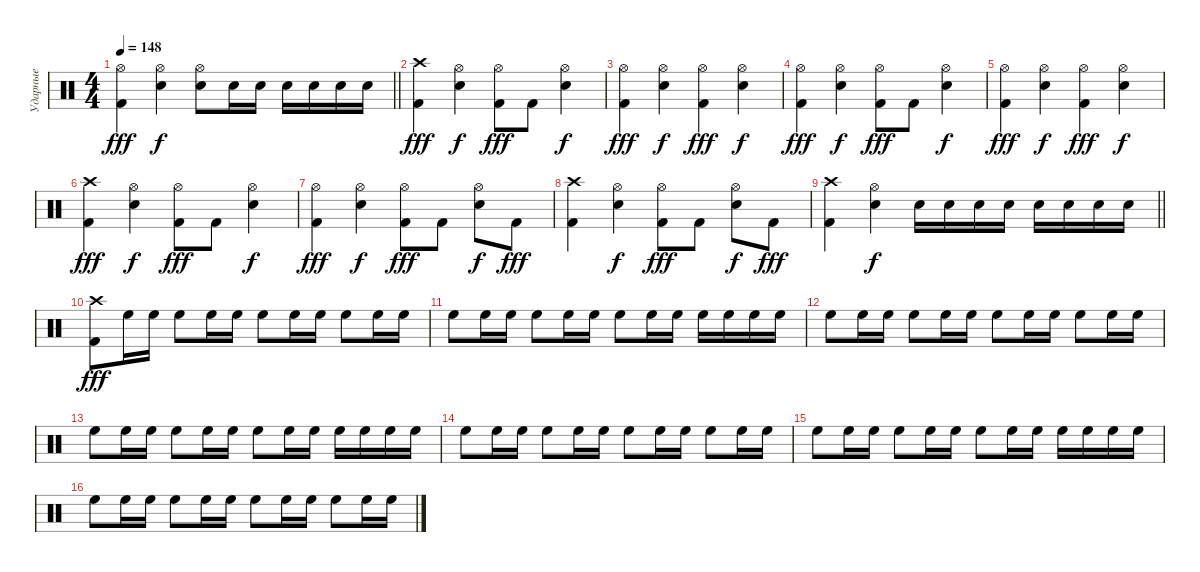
\track ("Ударные" "Ударные") {instrument percussion}
\staff {score}
\articulation defaults
\ts (4 4)
\tempo 148
\clef neutral
\barLineRight lightlight
\ks c
("Kick (hit) 2" "Hi-Hat (open)").4{dy fff} ("Snare (hit) 2" "Hi-Hat (open)").4{dy f} ("Snare (hit) 2" "Hi-Hat (open)").8 "Snare (hit) 2".16 "Snare (hit) 2".16 "Snare (hit) 2".16 "Snare (hit) 2".16 "Snare (hit) 2".16 "Snare (hit) 2".16 |
("Kick (hit) 2" "Crash high (hit)").4{dy fff} ("Snare (hit) 2" "Hi-Hat (open)").4{dy f} ("Kick (hit) 2" "Hi-Hat (open)").8{dy fff} "Kick (hit) 2".8 ("Snare (hit) 2" "Hi-Hat (open)").4{dy f} |
("Kick (hit) 2" "Hi-Hat (open)").4{dy fff} ("Snare (hit) 2" "Hi-Hat (open)").4{dy f} ("Kick (hit) 2" "Hi-Hat (open)").4{dy fff} ("Snare (hit) 2" "Hi-Hat (open)").4{dy f} |
("Kick (hit) 2" "Hi-Hat (open)").4{dy fff} ("Snare (hit) 2" "Hi-Hat (open)").4{dy f} ("Kick (hit) 2" "Hi-Hat (open)").8{dy fff} "Kick (hit) 2".8 ("Snare (hit) 2" "Hi-Hat (open)").4{dy f} |
("Kick (hit) 2" "Hi-Hat (open)").4{dy fff} ("Snare (hit) 2" "Hi-Hat (open)").4{dy f} ("Kick (hit) 2" "Hi-Hat (open)").4{dy fff} ("Snare (hit) 2" "Hi-Hat (open)").4{dy f} |
("Kick (hit) 2" "Crash high (hit)").4{dy fff} ("Snare (hit) 2" "Hi-Hat (open)").4{dy f} ("Kick (hit) 2" "Hi-Hat (open)").8{dy fff} "Kick (hit) 2".8 ("Snare (hit) 2" "Hi-Hat (open)").4{dy f} |
("Kick (hit) 2" "Hi-Hat (open)").4{dy fff} ("Snare (hit) 2" "Hi-Hat (open)").4{dy f} ("Kick (hit) 2" "Hi-Hat (open)").8{dy fff} "Kick (hit) 2".8 ("Snare (hit) 2" "Hi-Hat (open)").8{dy f} "Kick (hit) 2".8{dy fff} |
("Kick (hit) 2" "Crash high (hit)").4 ("Snare (hit) 2" "Hi-Hat (open)").4{dy f} ("Kick (hit) 2" "Hi-Hat (open)").8{dy fff} "Kick (hit) 2".8 ("Snare (hit) 2" "Hi-Hat (open)").8{dy f} "Kick (hit) 2".8{dy fff} |
\barLineRight lightlight
("Kick (hit) 2" "Crash high (hit)").4 ("Snare (hit) 2" "Hi-Hat (open)").4{dy f} "Snare (hit) 2".16 "Snare (hit) 2".16 "Snare (hit) 2".16 "Snare (hit) 2".16 "Snare (hit) 2".16 "Snare (hit) 2".16 "Snare (hit) 2".16 "Snare (hit) 2".16 |
("Kick (hit) 2" "Crash high (hit)").8{dy fff} "High Floor Tom (hit)".16 "High Floor Tom (hit)".16 "High Floor Tom (hit)".8 "High Floor Tom (hit)".16 "High Floor Tom (hit)".16 "High Floor Tom (hit)".8 "High Floor Tom (hit)".16 "High Floor Tom (hit)".16 "High Floor Tom (hit)".8 "High Floor Tom (hit)".16 "High Floor Tom (hit)".16 |
"High Floor Tom (hit)".8 "High Floor Tom (hit)".16 "High Floor Tom (hit)".16 "High Floor Tom (hit)".8 "High Floor Tom (hit)".16 "High Floor Tom (hit)".16 "High Floor Tom (hit)".8 "High Floor Tom (hit)".16 "High Floor Tom (hit)".16 "High Floor Tom (hit)".16 "High Floor Tom (hit)".16 "High Floor Tom (hit)".16 "High Floor Tom (hit)".16 |
"High Floor Tom (hit)".8 "High Floor Tom (hit)".16 "High Floor Tom (hit)".16 "High Floor Tom (hit)".8 "High Floor Tom (hit)".16 "High Floor Tom (hit)".16 "High Floor Tom (hit)".8 "High Floor Tom (hit)".16 "High Floor Tom (hit)".16 "High Floor Tom (hit)".8 "High Floor Tom (hit)".16 "High Floor Tom (hit)".16 |
"High Floor Tom (hit)".8 "High Floor Tom (hit)".16 "High Floor Tom (hit)".16 "High Floor Tom (hit)".8 "High Floor Tom (hit)".16 "High Floor Tom (hit)".16 "High Floor Tom (hit)".8 "High Floor Tom (hit)".16 "High Floor Tom (hit)".16 "High Floor Tom (hit)".16 "High Floor Tom (hit)".16 "High Floor Tom (hit)".16 "High Floor Tom (hit)".16 |
"High Floor Tom (hit)".8 "High Floor Tom (hit)".16 "High Floor Tom (hit)".16 "High Floor Tom (hit)".8 "High Floor Tom (hit)".16 "High Floor Tom (hit)".16 "High Floor Tom (hit)".8 "High Floor Tom (hit)".16 "High Floor Tom (hit)".16 "High Floor Tom (hit)".8 "High Floor Tom (hit)".16 "High Floor Tom (hit)".16 |
"High Floor Tom (hit)".8 "High Floor Tom (hit)".16 "High Floor Tom (hit)".16 "High Floor Tom (hit)".8 "High Floor Tom (hit)".16 "High Floor Tom (hit)".16 "High Floor Tom (hit)".8 "High Floor Tom (hit)".16 "High Floor Tom (hit)".16 "High Floor Tom (hit)".16 "High Floor Tom (hit)".16 "High Floor Tom (hit)".16 "High Floor Tom (hit)".16 |
"High Floor Tom (hit)".8 "High Floor Tom (hit)".16 "High Floor Tom (hit)".16 "High Floor Tom (hit)".8 "High Floor Tom (hit)".16 "High Floor Tom (hit)".16 "High Floor Tom (hit)".8 "High Floor Tom (hit)".16 "High Floor Tom (hit)".16 "High Floor Tom (hit)".8 "High Floor Tom (hit)".16 "High Floor Tom (hit)".16
